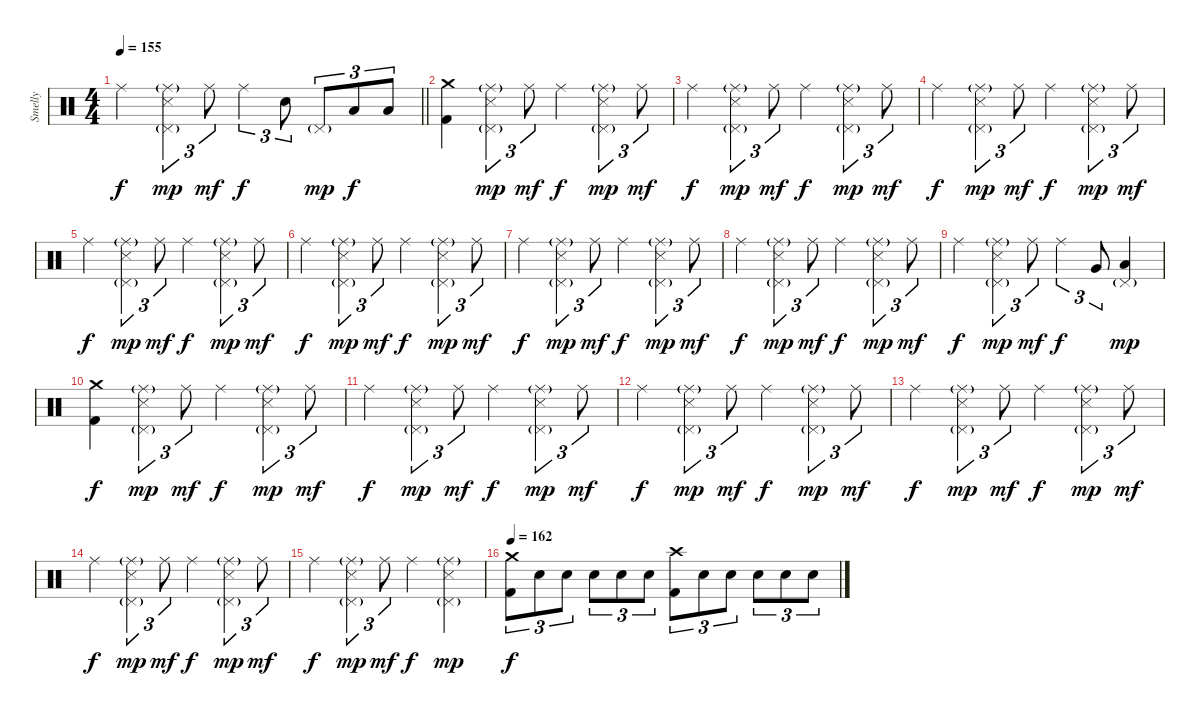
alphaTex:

\track ("Smelly" "Smelly") {instrument percussion}
\staff {score}
\articulation defaults
\ts (4 4)
\tempo 155
\clef neutral
\barLineRight lightlight
\ks c "Ride (middle)".4{dy f}
("Ride (middle)"{g} "Pedal Hi-Hat (hit)"{g} "Snare (side stick) 3").4{tu (3 2) dy mp} "Ride (middle)".8{tu (3 2) dy mf} "Ride (middle)".4{tu (3 2) dy f} "Electric Snare (hit)".8{tu (3 2)} "Pedal Hi-Hat (hit)"{g}.8{tu (3 2) dy mp} "Low Tom (hit)".8{tu (3 2) dy f} "Low Tom (hit)".8{tu (3 2)} |
\section ("" "")
("Crash medium (hit)" "Kick (hit) 2").4 ("Ride (middle)"{g} "Pedal Hi-Hat (hit)"{g} "Snare (side stick) 3").4{tu (3 2) dy mp} "Ride (middle)".8{tu (3 2) dy mf} "Ride (middle)".4{dy f} ("Ride (middle)"{g} "Pedal Hi-Hat (hit)"{g} "Snare (side stick) 3").4{tu (3 2) dy mp} "Ride (middle)".8{tu (3 2) dy mf} |
"Ride (middle)".4{dy f} ("Ride (middle)"{g} "Pedal Hi-Hat (hit)"{g} "Snare (side stick) 3").4{tu (3 2) dy mp} "Ride (middle)".8{tu (3 2) dy mf} "Ride (middle)".4{dy f} ("Ride (middle)"{g} "Pedal Hi-Hat (hit)"{g} "Snare (side stick) 3").4{tu (3 2) dy mp} "Ride (middle)".8{tu (3 2) dy mf} |
"Ride (middle)".4{dy f} ("Ride (middle)"{g} "Pedal Hi-Hat (hit)"{g} "Snare (side stick) 3").4{tu (3 2) dy mp} "Ride (middle)".8{tu (3 2) dy mf} "Ride (middle)".4{dy f} ("Ride (middle)"{g} "Pedal Hi-Hat (hit)"{g} "Snare (side stick) 3").4{tu (3 2) dy mp} "Ride (middle)".8{tu (3 2) dy mf} |
"Ride (middle)".4{dy f} ("Ride (middle)"{g} "Pedal Hi-Hat (hit)"{g} "Snare (side stick) 3").4{tu (3 2) dy mp} "Ride (middle)".8{tu (3 2) dy mf} "Ride (middle)".4{dy f} ("Ride (middle)"{g} "Pedal Hi-Hat (hit)"{g} "Snare (side stick) 3").4{tu (3 2) dy mp} "Ride (middle)".8{tu (3 2) dy mf} |
"Ride (middle)".4{dy f} ("Ride (middle)"{g} "Pedal Hi-Hat (hit)"{g} "Snare (side stick) 3").4{tu (3 2) dy mp} "Ride (middle)".8{tu (3 2) dy mf} "Ride (middle)".4{dy f} ("Ride (middle)"{g} "Pedal Hi-Hat (hit)"{g} "Snare (side stick) 3").4{tu (3 2) dy mp} "Ride (middle)".8{tu (3 2) dy mf} |
"Ride (middle)".4{dy f} ("Ride (middle)"{g} "Pedal Hi-Hat (hit)"{g} "Snare (side stick) 3").4{tu (3 2) dy mp} "Ride (middle)".8{tu (3 2) dy mf} "Ride (middle)".4{dy f} ("Ride (middle)"{g} "Pedal Hi-Hat (hit)"{g} "Snare (side stick) 3").4{tu (3 2) dy mp} "Ride (middle)".8{tu (3 2) dy mf} |
"Ride (middle)".4{dy f} ("Ride (middle)"{g} "Pedal Hi-Hat (hit)"{g} "Snare (side stick) 3").4{tu (3 2) dy mp} "Ride (middle)".8{tu (3 2) dy mf} "Ride (middle)".4{dy f} ("Ride (middle)"{g} "Pedal Hi-Hat (hit)"{g} "Snare (side stick) 3").4{tu (3 2) dy mp} "Ride (middle)".8{tu (3 2) dy mf} |
"Ride (middle)".4{dy f} ("Ride (middle)"{g} "Pedal Hi-Hat (hit)"{g} "Snare (side stick) 3").4{tu (3 2) dy mp} "Ride (middle)".8{tu (3 2) dy mf} "Ride (middle)".4{tu (3 2) dy f} "Very Low Tom (hit)".8{tu (3 2)} ("Pedal Hi-Hat (hit)"{g} "Low Floor Tom (hit)").4{dy mp} |
("Crash medium (hit)" "Kick (hit) 2").4{dy f} ("Ride (middle)"{g} "Pedal Hi-Hat (hit)"{g} "Snare (side stick) 3").4{tu (3 2) dy mp} "Ride (middle)".8{tu (3 2) dy mf} "Ride (middle)".4{dy f} ("Ride (middle)"{g} "Pedal Hi-Hat (hit)"{g} "Snare (side stick) 3").4{tu (3 2) dy mp} "Ride (middle)".8{tu (3 2) dy mf} |
"Ride (middle)".4{dy f} ("Ride (middle)"{g} "Pedal Hi-Hat (hit)"{g} "Snare (side stick) 3").4{tu (3 2) dy mp} "Ride (middle)".8{tu (3 2) dy mf} "Ride (middle)".4{dy f} ("Ride (middle)"{g} "Pedal Hi-Hat (hit)"{g} "Snare (side stick) 3").4{tu (3 2) dy mp} "Ride (middle)".8{tu (3 2) dy mf} |
"Ride (middle)".4{dy f} ("Ride (middle)"{g} "Pedal Hi-Hat (hit)"{g} "Snare (side stick) 3").4{tu (3 2) dy mp} "Ride (middle)".8{tu (3 2) dy mf} "Ride (middle)".4{dy f} ("Ride (middle)"{g} "Pedal Hi-Hat (hit)"{g} "Snare (side stick) 3").4{tu (3 2) dy mp} "Ride (middle)".8{tu (3 2) dy mf} |
"Ride (middle)".4{dy f} ("Ride (middle)"{g} "Pedal Hi-Hat (hit)"{g} "Snare (side stick) 3").4{tu (3 2) dy mp} "Ride (middle)".8{tu (3 2) dy mf} "Ride (middle)".4{dy f} ("Ride (middle)"{g} "Pedal Hi-Hat (hit)"{g} "Snare (side stick) 3").4{tu (3 2) dy mp} "Ride (middle)".8{tu (3 2) dy mf} |
"Ride (middle)".4{dy f} ("Ride (middle)"{g} "Pedal Hi-Hat (hit)"{g} "Snare (side stick) 3").4{tu (3 2) dy mp} "Ride (middle)".8{tu (3 2) dy mf} "Ride (middle)".4{dy f} ("Ride (middle)"{g} "Pedal Hi-Hat (hit)"{g} "Snare (side stick) 3").4{tu (3 2) dy mp} "Ride (middle)".8{tu (3 2) dy mf} |
"Ride (middle)".4{dy f} ("Ride (middle)"{g} "Pedal Hi-Hat (hit)"{g} "Snare (side stick) 3").4{tu (3 2) dy mp} "Ride (middle)".8{tu (3 2) dy mf} "Ride (middle)".4{dy f} ("Ride (middle)"{g} "Pedal Hi-Hat (hit)"{g} "Snare (side stick) 3").4{dy mp} |
\tempo 162
("Crash medium (hit)" "Kick (hit) 2").8{tu (3 2) dy f} "Electric Snare (hit)".8{tu (3 2)} "Electric Snare (hit)".8{tu (3 2)} "Electric Snare (hit)".8{tu (3 2)} "Electric Snare (hit)".8{tu (3 2)} "Electric Snare (hit)".8{tu (3 2)} ("Crash high (hit)" "Kick (hit) 2").8{tu (3 2)} "Electric Snare (hit)".8{tu (3 2)} "Electric Snare (hit)".8{tu (3 2)} "Electric Snare (hit)".8{tu (3 2)} "Electric Snare (hit)".8{tu (3 2)} "Electric Snare (hit)".8{tu (3 2)}
